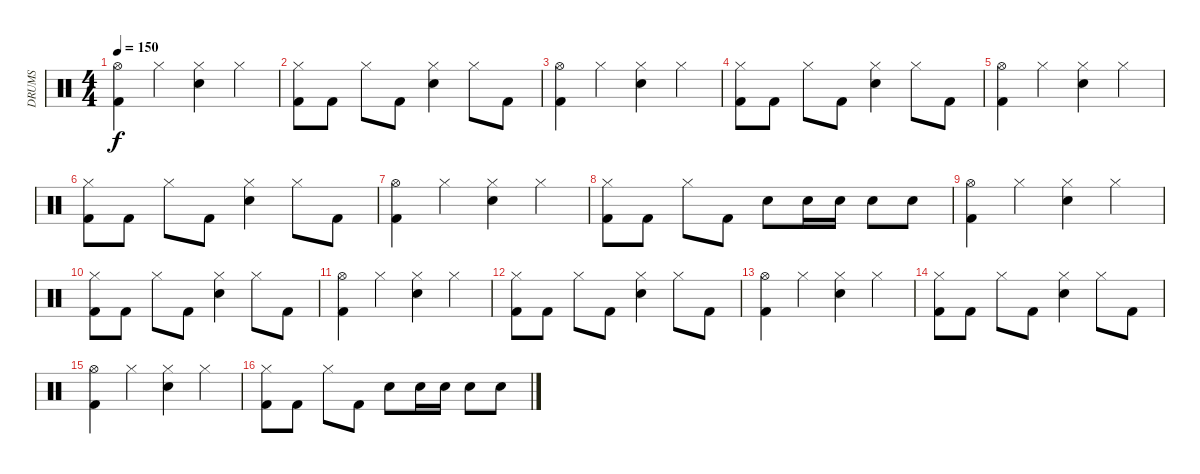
\track ("DRUMS" "DRUMS") {instrument percussion}
\staff {score}
\articulation defaults
\ts (4 4)
\tempo 150
\clef neutral
\ks c
("Hi-Hat (open)" "Kick (hit) 2").4{dy f} "Hi-Hat (closed)".4 ("Hi-Hat (closed)" "Electric Snare (hit)").4 "Hi-Hat (closed)".4 |
("Hi-Hat (closed)" "Kick (hit) 2").8 "Kick (hit) 2".8 "Hi-Hat (closed)".8 "Kick (hit) 2".8 ("Hi-Hat (closed)" "Electric Snare (hit)").4 "Hi-Hat (closed)".8 "Kick (hit) 2".8 |
("Hi-Hat (open)" "Kick (hit) 2").4 "Hi-Hat (closed)".4 ("Hi-Hat (closed)" "Electric Snare (hit)").4 "Hi-Hat (closed)".4 |
("Hi-Hat (closed)" "Kick (hit) 2").8 "Kick (hit) 2".8 "Hi-Hat (closed)".8 "Kick (hit) 2".8 ("Hi-Hat (closed)" "Electric Snare (hit)").4 "Hi-Hat (closed)".8 "Kick (hit) 2".8 |
("Hi-Hat (open)" "Kick (hit) 2").4 "Hi-Hat (closed)".4 ("Hi-Hat (closed)" "Electric Snare (hit)").4 "Hi-Hat (closed)".4 |
("Hi-Hat (closed)" "Kick (hit) 2").8 "Kick (hit) 2".8 "Hi-Hat (closed)".8 "Kick (hit) 2".8 ("Hi-Hat (closed)" "Electric Snare (hit)").4 "Hi-Hat (closed)".8 "Kick (hit) 2".8 |
("Hi-Hat (open)" "Kick (hit) 2").4 "Hi-Hat (closed)".4 ("Hi-Hat (closed)" "Electric Snare (hit)").4 "Hi-Hat (closed)".4 |
("Hi-Hat (closed)" "Kick (hit) 2").8 "Kick (hit) 2".8 "Hi-Hat (closed)".8 "Kick (hit) 2".8 "Electric Snare (hit)".8 "Electric Snare (hit)".16 "Electric Snare (hit)".16 "Electric Snare (hit)".8 "Electric Snare (hit)".8 |
("Hi-Hat (open)" "Kick (hit) 2").4 "Hi-Hat (closed)".4 ("Hi-Hat (closed)" "Electric Snare (hit)").4 "Hi-Hat (closed)".4 |
("Hi-Hat (closed)" "Kick (hit) 2").8 "Kick (hit) 2".8 "Hi-Hat (closed)".8 "Kick (hit) 2".8 ("Hi-Hat (closed)" "Electric Snare (hit)").4 "Hi-Hat (closed)".8 "Kick (hit) 2".8 |
("Hi-Hat (open)" "Kick (hit) 2").4 "Hi-Hat (closed)".4 ("Hi-Hat (closed)" "Electric Snare (hit)").4 "Hi-Hat (closed)".4 |
("Hi-Hat (closed)" "Kick (hit) 2").8 "Kick (hit) 2".8 "Hi-Hat (closed)".8 "Kick (hit) 2".8 ("Hi-Hat (closed)" "Electric Snare (hit)").4 "Hi-Hat (closed)".8 "Kick (hit) 2".8 |
("Hi-Hat (open)" "Kick (hit) 2").4 "Hi-Hat (closed)".4 ("Hi-Hat (closed)" "Electric Snare (hit)").4 "Hi-Hat (closed)".4 |
("Hi-Hat (closed)" "Kick (hit) 2").8 "Kick (hit) 2".8 "Hi-Hat (closed)".8 "Kick (hit) 2".8 ("Hi-Hat (closed)" "Electric Snare (hit)").4 "Hi-Hat (closed)".8 "Kick (hit) 2".8 |
("Hi-Hat (open)" "Kick (hit) 2").4 "Hi-Hat (closed)".4 ("Hi-Hat (closed)" "Electric Snare (hit)").4 "Hi-Hat (closed)".4 |
("Hi-Hat (closed)" "Kick (hit) 2").8 "Kick (hit) 2".8 "Hi-Hat (closed)".8 "Kick (hit) 2".8 "Electric Snare (hit)".8 "Electric Snare (hit)".16 "Electric Snare (hit)".16 "Electric Snare (hit)".8 "Electric Snare (hit)".8
